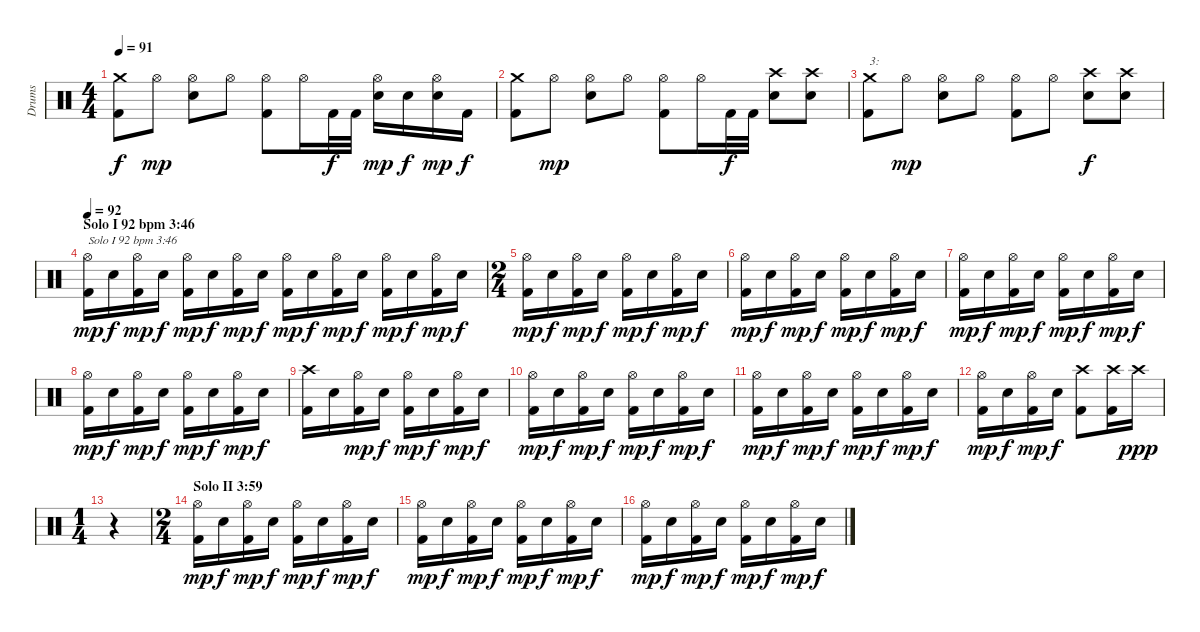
\track ("Drums" "Drums") {instrument percussion}
\staff {score}
\articulation defaults
\ts (4 4)
\tempo 91
\clef neutral
\ks c
("Kick (hit) 2" "Crash medium (hit)").8{dy f} "Hi-Hat (open)".8{dy mp} ("Electric Snare (hit)" "Hi-Hat (open)").8 "Hi-Hat (open)".8 ("Kick (hit) 2" "Hi-Hat (open)").8 "Hi-Hat (open)".16 "Kick (hit) 2".32{dy f} "Kick (hit) 2".32 ("Electric Snare (hit)" "Hi-Hat (open)").16{dy mp} "Electric Snare (hit)".16{dy f} ("Electric Snare (hit)" "Hi-Hat (open)").16{dy mp} "Kick (hit) 2".16{dy f} |
("Kick (hit) 2" "Crash medium (hit)").8 "Hi-Hat (open)".8{dy mp} ("Electric Snare (hit)" "Hi-Hat (open)").8 "Hi-Hat (open)".8 ("Kick (hit) 2" "Hi-Hat (open)").8 "Hi-Hat (open)".16 "Kick (hit) 2".32{dy f} "Kick (hit) 2".32 ("Electric Snare (hit)" "Crash high (hit)").8 ("Electric Snare (hit)" "Crash high (hit)").8 |
("Kick (hit) 2" "Crash medium (hit)").8{txt "3:"} "Hi-Hat (open)".8{dy mp} ("Electric Snare (hit)" "Hi-Hat (open)").8 "Hi-Hat (open)".8 ("Kick (hit) 2" "Hi-Hat (open)").8 "Hi-Hat (open)".8 ("Electric Snare (hit)" "Crash high (hit)").8{dy f} ("Electric Snare (hit)" "Crash high (hit)").8 |
\section ("" "Solo I 92 bpm 3:46 ")
\tempo 92
("Kick (hit) 2" "Hi-Hat (open)").16{txt "Solo I 92 bpm 3:46 " dy mp} "Electric Snare (hit)".16{dy f} ("Kick (hit) 2" "Hi-Hat (open)").16{dy mp} "Electric Snare (hit)".16{dy f} ("Kick (hit) 2" "Hi-Hat (open)").16{dy mp} "Electric Snare (hit)".16{dy f} ("Kick (hit) 2" "Hi-Hat (open)").16{dy mp} "Electric Snare (hit)".16{dy f} ("Kick (hit) 2" "Hi-Hat (open)").16{dy mp} "Electric Snare (hit)".16{dy f} ("Kick (hit) 2" "Hi-Hat (open)").16{dy mp} "Electric Snare (hit)".16{dy f} ("Kick (hit) 2" "Hi-Hat (open)").16{dy mp} "Electric Snare (hit)".16{dy f} ("Kick (hit) 2" "Hi-Hat (open)").16{dy mp} "Electric Snare (hit)".16{dy f} |
\ts (2 4)
("Kick (hit) 2" "Hi-Hat (open)").16{dy mp} "Electric Snare (hit)".16{dy f} ("Kick (hit) 2" "Hi-Hat (open)").16{dy mp} "Electric Snare (hit)".16{dy f} ("Kick (hit) 2" "Hi-Hat (open)").16{dy mp} "Electric Snare (hit)".16{dy f} ("Kick (hit) 2" "Hi-Hat (open)").16{dy mp} "Electric Snare (hit)".16{dy f} |
("Kick (hit) 2" "Hi-Hat (open)").16{dy mp} "Electric Snare (hit)".16{dy f} ("Kick (hit) 2" "Hi-Hat (open)").16{dy mp} "Electric Snare (hit)".16{dy f} ("Kick (hit) 2" "Hi-Hat (open)").16{dy mp} "Electric Snare (hit)".16{dy f} ("Kick (hit) 2" "Hi-Hat (open)").16{dy mp} "Electric Snare (hit)".16{dy f} |
("Kick (hit) 2" "Hi-Hat (open)").16{dy mp} "Electric Snare (hit)".16{dy f} ("Kick (hit) 2" "Hi-Hat (open)").16{dy mp} "Electric Snare (hit)".16{dy f} ("Kick (hit) 2" "Hi-Hat (open)").16{dy mp} "Electric Snare (hit)".16{dy f} ("Kick (hit) 2" "Hi-Hat (open)").16{dy mp} "Electric Snare (hit)".16{dy f} |
("Kick (hit) 2" "Hi-Hat (open)").16{dy mp} "Electric Snare (hit)".16{dy f} ("Kick (hit) 2" "Hi-Hat (open)").16{dy mp} "Electric Snare (hit)".16{dy f} ("Kick (hit) 2" "Hi-Hat (open)").16{dy mp} "Electric Snare (hit)".16{dy f} ("Kick (hit) 2" "Hi-Hat (open)").16{dy mp} "Electric Snare (hit)".16{dy f} |
("Kick (hit) 2" "Crash high (hit)").16 "Electric Snare (hit)".16 ("Kick (hit) 2" "Hi-Hat (open)").16{dy mp} "Electric Snare (hit)".16{dy f} ("Kick (hit) 2" "Hi-Hat (open)").16{dy mp} "Electric Snare (hit)".16{dy f} ("Kick (hit) 2" "Hi-Hat (open)").16{dy mp} "Electric Snare (hit)".16{dy f} |
("Kick (hit) 2" "Hi-Hat (open)").16{dy mp} "Electric Snare (hit)".16{dy f} ("Kick (hit) 2" "Hi-Hat (open)").16{dy mp} "Electric Snare (hit)".16{dy f} ("Kick (hit) 2" "Hi-Hat (open)").16{dy mp} "Electric Snare (hit)".16{dy f} ("Kick (hit) 2" "Hi-Hat (open)").16{dy mp} "Electric Snare (hit)".16{dy f} |
("Kick (hit) 2" "Hi-Hat (open)").16{dy mp} "Electric Snare (hit)".16{dy f} ("Kick (hit) 2" "Hi-Hat (open)").16{dy mp} "Electric Snare (hit)".16{dy f} ("Kick (hit) 2" "Hi-Hat (open)").16{dy mp} "Electric Snare (hit)".16{dy f} ("Kick (hit) 2" "Hi-Hat (open)").16{dy mp} "Electric Snare (hit)".16{dy f} |
("Kick (hit) 2" "Hi-Hat (open)").16{dy mp} "Electric Snare (hit)".16{dy f} ("Kick (hit) 2" "Hi-Hat (open)").16{dy mp} "Electric Snare (hit)".16{dy f} ("Kick (hit) 2" "Crash high (hit)").8 ("Kick (hit) 2" "Crash high (hit)").16 "Crash high (hit)".16{dy ppp} |
\ts (1 4)
r.4 |
\ts (2 4)
\section ("" "Solo II 3:59 ")
("Kick (hit) 2" "Hi-Hat (open)").16{dy mp} "Electric Snare (hit)".16{dy f} ("Kick (hit) 2" "Hi-Hat (open)").16{dy mp} "Electric Snare (hit)".16{dy f} ("Kick (hit) 2" "Hi-Hat (open)").16{dy mp} "Electric Snare (hit)".16{dy f} ("Kick (hit) 2" "Hi-Hat (open)").16{dy mp} "Electric Snare (hit)".16{dy f} |
("Kick (hit) 2" "Hi-Hat (open)").16{dy mp} "Electric Snare (hit)".16{dy f} ("Kick (hit) 2" "Hi-Hat (open)").16{dy mp} "Electric Snare (hit)".16{dy f} ("Kick (hit) 2" "Hi-Hat (open)").16{dy mp} "Electric Snare (hit)".16{dy f} ("Kick (hit) 2" "Hi-Hat (open)").16{dy mp} "Electric Snare (hit)".16{dy f} |
("Kick (hit) 2" "Hi-Hat (open)").16{dy mp} "Electric Snare (hit)".16{dy f} ("Kick (hit) 2" "Hi-Hat (open)").16{dy mp} "Electric Snare (hit)".16{dy f} ("Kick (hit) 2" "Hi-Hat (open)").16{dy mp} "Electric Snare (hit)".16{dy f} ("Kick (hit) 2" "Hi-Hat (open)").16{dy mp} "Electric Snare (hit)".16{dy f}
